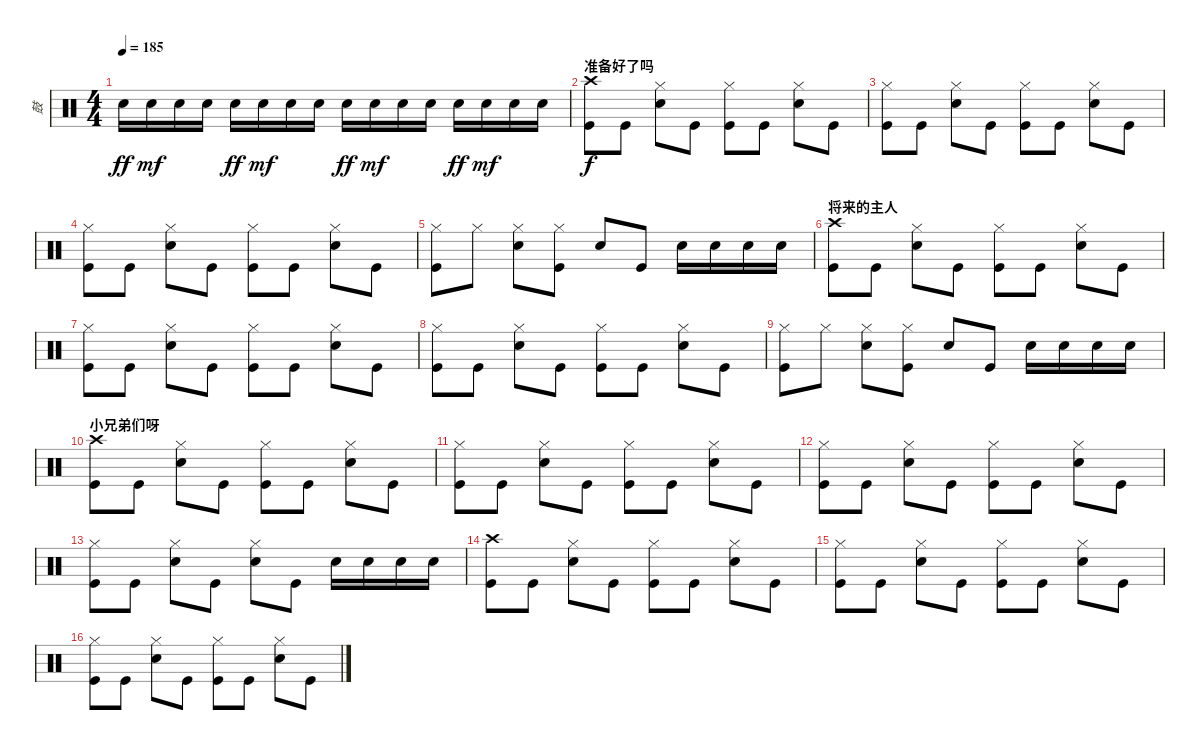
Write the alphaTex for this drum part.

\track ("鼓" "鼓") {instrument percussion}
\staff {score}
\articulation defaults
\ts (4 4)
\tempo 185
\clef neutral
\ks c "Snare (hit) 2".16{dy ff} "Snare (hit) 2".16{dy mf} "Snare (hit) 2".16 "Snare (hit) 2".16 "Snare (hit) 2".16{dy ff} "Snare (hit) 2".16{dy mf} "Snare (hit) 2".16 "Snare (hit) 2".16 "Snare (hit) 2".16{dy ff} "Snare (hit) 2".16{dy mf} "Snare (hit) 2".16 "Snare (hit) 2".16 "Snare (hit) 2".16{dy ff} "Snare (hit) 2".16{dy mf} "Snare (hit) 2".16 "Snare (hit) 2".16
|
\section ("" "准备好了吗")
("Crash high (hit)" "Kick (hit)").8{dy f} "Kick (hit)".8 ("Hi-Hat (closed)" "Snare (hit) 2").8 "Kick (hit)".8 ("Hi-Hat (closed)" "Kick (hit)").8 "Kick (hit)".8 ("Hi-Hat (closed)" "Snare (hit) 2").8 "Kick (hit)".8 |
("Hi-Hat (closed)" "Kick (hit)").8 "Kick (hit)".8 ("Hi-Hat (closed)" "Snare (hit) 2").8 "Kick (hit)".8 ("Hi-Hat (closed)" "Kick (hit)").8 "Kick (hit)".8 ("Hi-Hat (closed)" "Snare (hit) 2").8 "Kick (hit)".8 |
("Hi-Hat (closed)" "Kick (hit)").8 "Kick (hit)".8 ("Hi-Hat (closed)" "Snare (hit) 2").8 "Kick (hit)".8 ("Hi-Hat (closed)" "Kick (hit)").8 "Kick (hit)".8 ("Hi-Hat (closed)" "Snare (hit) 2").8 "Kick (hit)".8 |
("Hi-Hat (closed)" "Kick (hit)").8 "Hi-Hat (closed)".8 ("Hi-Hat (closed)" "Snare (hit) 2").8 ("Hi-Hat (closed)" "Kick (hit)").8 "Snare (hit) 2".8 "Kick (hit)".8 "Snare (hit) 2".16 "Snare (hit) 2".16 "Snare (hit) 2".16 "Snare (hit) 2".16 |
\section ("" "将来的主人")
("Crash high (hit)" "Kick (hit)").8 "Kick (hit)".8 ("Hi-Hat (closed)" "Snare (hit) 2").8 "Kick (hit)".8 ("Hi-Hat (closed)" "Kick (hit)").8 "Kick (hit)".8 ("Hi-Hat (closed)" "Snare (hit) 2").8 "Kick (hit)".8 |
("Hi-Hat (closed)" "Kick (hit)").8 "Kick (hit)".8 ("Hi-Hat (closed)" "Snare (hit) 2").8 "Kick (hit)".8 ("Hi-Hat (closed)" "Kick (hit)").8 "Kick (hit)".8 ("Hi-Hat (closed)" "Snare (hit) 2").8 "Kick (hit)".8 |
("Hi-Hat (closed)" "Kick (hit)").8 "Kick (hit)".8 ("Hi-Hat (closed)" "Snare (hit) 2").8 "Kick (hit)".8 ("Hi-Hat (closed)" "Kick (hit)").8 "Kick (hit)".8 ("Hi-Hat (closed)" "Snare (hit) 2").8 "Kick (hit)".8 |
("Hi-Hat (closed)" "Kick (hit)").8 "Hi-Hat (closed)".8 ("Hi-Hat (closed)" "Snare (hit) 2").8 ("Hi-Hat (closed)" "Kick (hit)").8 "Snare (hit) 2".8 "Kick (hit)".8 "Snare (hit) 2".16 "Snare (hit) 2".16 "Snare (hit) 2".16 "Snare (hit) 2".16 |
\section ("" "小兄弟们呀")
("Crash high (hit)" "Kick (hit)").8 "Kick (hit)".8 ("Hi-Hat (closed)" "Snare (hit) 2").8 "Kick (hit)".8 ("Hi-Hat (closed)" "Kick (hit)").8 "Kick (hit)".8 ("Hi-Hat (closed)" "Snare (hit) 2").8 "Kick (hit)".8 |
("Hi-Hat (closed)" "Kick (hit)").8 "Kick (hit)".8 ("Hi-Hat (closed)" "Snare (hit) 2").8 "Kick (hit)".8 ("Hi-Hat (closed)" "Kick (hit)").8 "Kick (hit)".8 ("Hi-Hat (closed)" "Snare (hit) 2").8 "Kick (hit)".8 |
("Hi-Hat (closed)" "Kick (hit)").8 "Kick (hit)".8 ("Hi-Hat (closed)" "Snare (hit) 2").8 "Kick (hit)".8 ("Hi-Hat (closed)" "Kick (hit)").8 "Kick (hit)".8 ("Hi-Hat (closed)" "Snare (hit) 2").8 "Kick (hit)".8 |
("Hi-Hat (closed)" "Kick (hit)").8 "Kick (hit)".8 ("Hi-Hat (closed)" "Snare (hit) 2").8 "Kick (hit)".8 ("Hi-Hat (closed)" "Snare (hit) 2").8 "Kick (hit)".8 "Snare (hit) 2".16 "Snare (hit) 2".16 "Snare (hit) 2".16 "Snare (hit) 2".16 |
("Crash high (hit)" "Kick (hit)").8 "Kick (hit)".8 ("Hi-Hat (closed)" "Snare (hit) 2").8 "Kick (hit)".8 ("Hi-Hat (closed)" "Kick (hit)").8 "Kick (hit)".8 ("Hi-Hat (closed)" "Snare (hit) 2").8 "Kick (hit)".8 |
("Hi-Hat (closed)" "Kick (hit)").8 "Kick (hit)".8 ("Hi-Hat (closed)" "Snare (hit) 2").8 "Kick (hit)".8 ("Hi-Hat (closed)" "Kick (hit)").8 "Kick (hit)".8 ("Hi-Hat (closed)" "Snare (hit) 2").8 "Kick (hit)".8 |
("Hi-Hat (closed)" "Kick (hit)").8 "Kick (hit)".8 ("Hi-Hat (closed)" "Snare (hit) 2").8 "Kick (hit)".8 ("Hi-Hat (closed)" "Kick (hit)").8 "Kick (hit)".8 ("Hi-Hat (closed)" "Snare (hit) 2").8 "Kick (hit)".8
